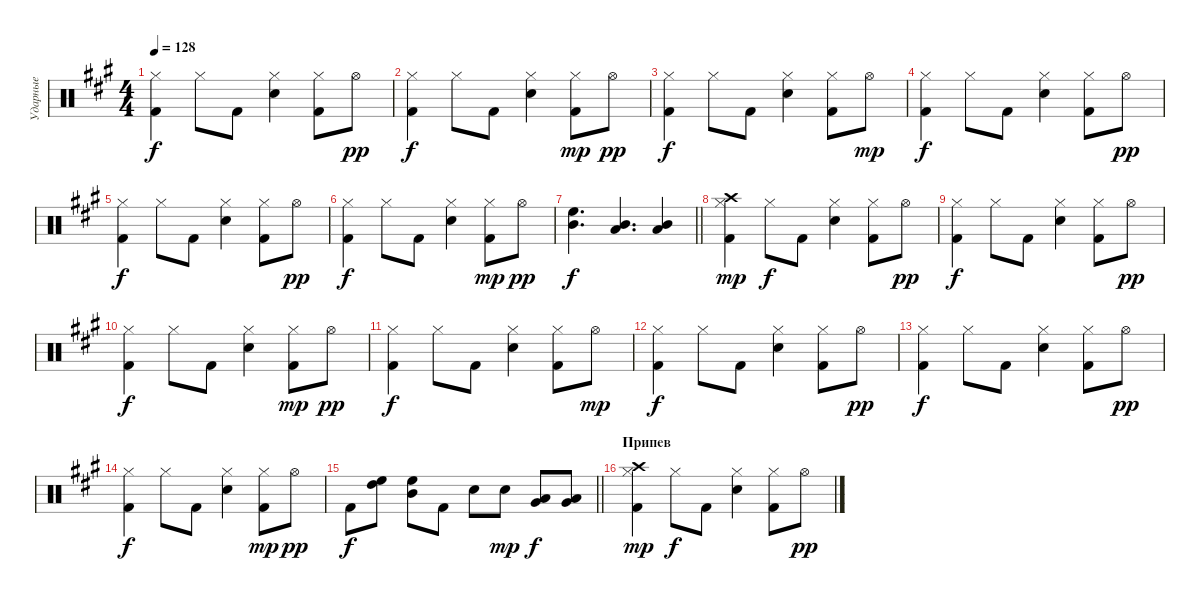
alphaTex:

\track ("Ударные" "Ударные") {instrument percussion}
\staff {score}
\articulation defaults
\ts (4 4)
\tempo 128
\clef neutral
\ks f#minor
("Hi-Hat (closed)" "Kick (hit) 2").4{dy f} "Hi-Hat (closed)".8 "Kick (hit) 2".8 ("Snare (hit) 2" "Hi-Hat (closed)").4 ("Kick (hit) 2" "Hi-Hat (closed)").8 "Hi-Hat (open)".8{dy pp} |
("Hi-Hat (closed)" "Kick (hit) 2").4{dy f} "Hi-Hat (closed)".8 "Kick (hit) 2".8 ("Snare (hit) 2" "Hi-Hat (closed)").4 ("Kick (hit) 2" "Hi-Hat (closed)").8{dy mp} "Hi-Hat (open)".8{dy pp} |
("Hi-Hat (closed)" "Kick (hit) 2").4{dy f} "Hi-Hat (closed)".8 "Kick (hit) 2".8 ("Snare (hit) 2" "Hi-Hat (closed)").4 ("Kick (hit) 2" "Hi-Hat (closed)").8 "Hi-Hat (open)".8{dy mp} |
("Hi-Hat (closed)" "Kick (hit) 2").4{dy f} "Hi-Hat (closed)".8 "Kick (hit) 2".8 ("Snare (hit) 2" "Hi-Hat (closed)").4 ("Kick (hit) 2" "Hi-Hat (closed)").8 "Hi-Hat (open)".8{dy pp} |
("Hi-Hat (closed)" "Kick (hit) 2").4{dy f} "Hi-Hat (closed)".8 "Kick (hit) 2".8 ("Snare (hit) 2" "Hi-Hat (closed)").4 ("Kick (hit) 2" "Hi-Hat (closed)").8 "Hi-Hat (open)".8{dy pp} |
("Hi-Hat (closed)" "Kick (hit) 2").4{dy f} "Hi-Hat (closed)".8 "Kick (hit) 2".8 ("Snare (hit) 2" "Hi-Hat (closed)").4 ("Kick (hit) 2" "Hi-Hat (closed)").8{dy mp} "Hi-Hat (open)".8{dy pp} |
\barLineRight lightlight
("High Floor Tom (hit)" "Mid Tom (hit)").4{d dy f} ("Low Tom (hit)" "Mid Tom (hit)").4{d} ("Low Tom (hit)" "Mid Tom (hit)").4 |
("Hi-Hat (closed)" "Kick (hit) 2" "Crash high (hit)").4{dy mp} "Hi-Hat (closed)".8{dy f} "Kick (hit) 2".8 ("Snare (hit) 2" "Hi-Hat (closed)").4 ("Kick (hit) 2" "Hi-Hat (closed)").8 "Hi-Hat (open)".8{dy pp} |
("Hi-Hat (closed)" "Kick (hit) 2").4{dy f} "Hi-Hat (closed)".8 "Kick (hit) 2".8 ("Snare (hit) 2" "Hi-Hat (closed)").4 ("Kick (hit) 2" "Hi-Hat (closed)").8 "Hi-Hat (open)".8{dy pp} |
("Hi-Hat (closed)" "Kick (hit) 2").4{dy f} "Hi-Hat (closed)".8 "Kick (hit) 2".8 ("Snare (hit) 2" "Hi-Hat (closed)").4 ("Kick (hit) 2" "Hi-Hat (closed)").8{dy mp} "Hi-Hat (open)".8{dy pp} |
("Hi-Hat (closed)" "Kick (hit) 2").4{dy f} "Hi-Hat (closed)".8 "Kick (hit) 2".8 ("Snare (hit) 2" "Hi-Hat (closed)").4 ("Kick (hit) 2" "Hi-Hat (closed)").8 "Hi-Hat (open)".8{dy mp} |
("Hi-Hat (closed)" "Kick (hit) 2").4{dy f} "Hi-Hat (closed)".8 "Kick (hit) 2".8 ("Snare (hit) 2" "Hi-Hat (closed)").4 ("Kick (hit) 2" "Hi-Hat (closed)").8 "Hi-Hat (open)".8{dy pp} |
("Hi-Hat (closed)" "Kick (hit) 2").4{dy f} "Hi-Hat (closed)".8 "Kick (hit) 2".8 ("Snare (hit) 2" "Hi-Hat (closed)").4 ("Kick (hit) 2" "Hi-Hat (closed)").8 "Hi-Hat (open)".8{dy pp} |
("Hi-Hat (closed)" "Kick (hit) 2").4{dy f} "Hi-Hat (closed)".8 "Kick (hit) 2".8 ("Snare (hit) 2" "Hi-Hat (closed)").4 ("Kick (hit) 2" "Hi-Hat (closed)").8{dy mp} "Hi-Hat (open)".8{dy pp} |
\barLineRight lightlight "Kick (hit) 2".8{dy f}
("High Tom (hit)" "High Floor Tom (hit)").8 ("High Floor Tom (hit)" "Mid Tom (hit)").8 "Kick (hit) 2".8 "Snare (hit) 2".8 "Snare (hit) 2".8{dy mp} ("Low Tom (hit)" "Very Low Tom (hit)").8{dy f} ("Low Tom (hit)" "Very Low Tom (hit)").8 |
\section ("" "Припев")
("Hi-Hat (closed)" "Kick (hit) 2" "Crash high (hit)").4{dy mp} "Hi-Hat (closed)".8{dy f} "Kick (hit) 2".8 ("Snare (hit) 2" "Hi-Hat (closed)").4 ("Kick (hit) 2" "Hi-Hat (closed)").8 "Hi-Hat (open)".8{dy pp}
